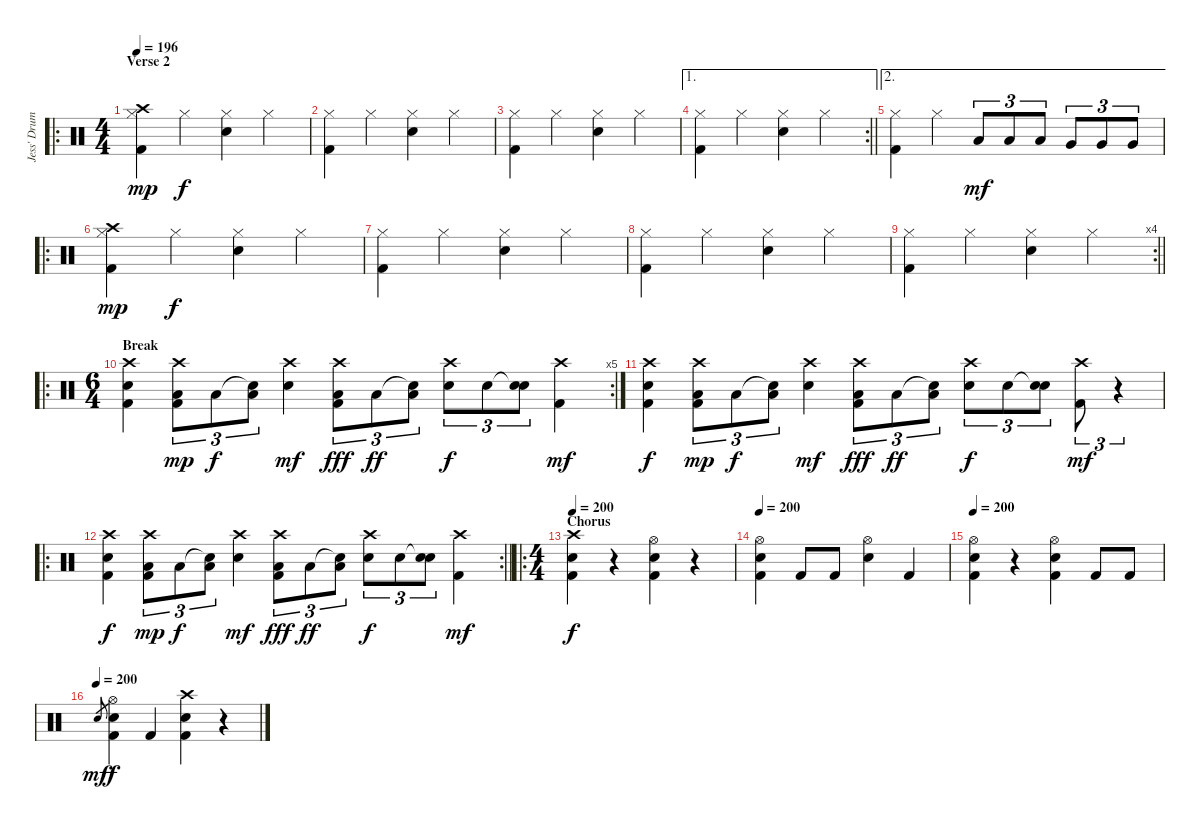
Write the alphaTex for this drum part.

\track ("Jess' Drums" "Jess' Drum") {instrument percussion}
\staff {score}
\articulation defaults
\ro
\ts (4 4)
\section ("" "Verse 2")
\tempo 196
\clef neutral
\ks c
("Crash high (hit)" "Hi-Hat (closed)" "Kick (hit) 2").4{dy mp} "Hi-Hat (closed)".4{dy f} ("Hi-Hat (closed)" "Snare (hit) 2").4 "Hi-Hat (closed)".4 |
("Hi-Hat (closed)" "Kick (hit) 2").4 "Hi-Hat (closed)".4 ("Hi-Hat (closed)" "Snare (hit) 2").4 "Hi-Hat (closed)".4 |
("Hi-Hat (closed)" "Kick (hit) 2").4 "Hi-Hat (closed)".4 ("Hi-Hat (closed)" "Snare (hit) 2").4 "Hi-Hat (closed)".4 |
\ae 1
\rc 2
\barLineRight lightlight
("Hi-Hat (closed)" "Kick (hit) 2").4 "Hi-Hat (closed)".4 ("Hi-Hat (closed)" "Snare (hit) 2").4 "Hi-Hat (closed)".4 |
\ae 2
("Hi-Hat (closed)" "Kick (hit) 2").4 "Hi-Hat (closed)".4 "Low Tom (hit)".8{tu (3 2) dy mf} "Low Tom (hit)".8{tu (3 2)} "Low Tom (hit)".8{tu (3 2)} "Very Low Tom (hit)".8{tu (3 2)} "Very Low Tom (hit)".8{tu (3 2)} "Very Low Tom (hit)".8{tu (3 2)} |
\ro
("Crash high (hit)" "Hi-Hat (closed)" "Kick (hit) 2").4{dy mp} "Hi-Hat (closed)".4{dy f} ("Hi-Hat (closed)" "Snare (hit) 2").4 "Hi-Hat (closed)".4 |
("Hi-Hat (closed)" "Kick (hit) 2").4 "Hi-Hat (closed)".4 ("Hi-Hat (closed)" "Snare (hit) 2").4 "Hi-Hat (closed)".4 |
("Hi-Hat (closed)" "Kick (hit) 2").4 "Hi-Hat (closed)".4 ("Hi-Hat (closed)" "Snare (hit) 2").4 "Hi-Hat (closed)".4 |
\rc 4
\barLineRight lightlight
("Hi-Hat (closed)" "Kick (hit) 2").4 "Hi-Hat (closed)".4 ("Hi-Hat (closed)" "Snare (hit) 2").4 "Hi-Hat (closed)".4 |
\ro
\rc 5
\ts (6 4)
\section ("" "Break")
("Crash high (hit)" "Snare (hit) 2" "Kick (hit) 2").4 ("Crash high (hit)" "Low Floor Tom (hit)" "Kick (hit) 2").8{tu (3 2) dy mp} "Low Floor Tom (hit)".8{tu (3 2) dy f} ("Snare (hit)"{t} "Low Floor Tom (hit)").8{tu (3 2)} ("Crash high (hit)" "Snare (hit) 2").4{dy mf} ("Crash high (hit)" "Low Floor Tom (hit)" "Kick (hit) 2").8{tu (3 2) dy fff} "Low Floor Tom (hit)".8{tu (3 2) dy ff} ("Snare (hit)"{t} "Low Floor Tom (hit)").8{tu (3 2)} ("Crash high (hit)" "Snare (hit) 2").8{tu (3 2) dy f} "Snare (hit) 2".8{tu (3 2)} ("Snare (hit)"{t} "Snare (hit) 2").8{tu (3 2)} ("Crash high (hit)" "Kick (hit) 2").4{dy mf} |
("Crash high (hit)" "Snare (hit) 2" "Kick (hit) 2").4{dy f} ("Crash high (hit)" "Low Floor Tom (hit)" "Kick (hit) 2").8{tu (3 2) dy mp} "Low Floor Tom (hit)".8{tu (3 2) dy f} ("Snare (hit)"{t} "Low Floor Tom (hit)").8{tu (3 2)} ("Crash high (hit)" "Snare (hit) 2").4{dy mf} ("Crash high (hit)" "Low Floor Tom (hit)" "Kick (hit) 2").8{tu (3 2) dy fff} "Low Floor Tom (hit)".8{tu (3 2) dy ff} ("Snare (hit)"{t} "Low Floor Tom (hit)").8{tu (3 2)} ("Crash high (hit)" "Snare (hit) 2").8{tu (3 2) dy f} "Snare (hit) 2".8{tu (3 2)} ("Snare (hit)"{t} "Snare (hit) 2").8{tu (3 2)} ("Crash high (hit)" "Kick (hit) 2").8{tu (3 2) dy mf} r.4{tu (3 2)} |
\ro
\rc 2
\barLineRight lightlight
("Crash high (hit)" "Snare (hit) 2" "Kick (hit) 2").4{dy f} ("Crash high (hit)" "Low Floor Tom (hit)" "Kick (hit) 2").8{tu (3 2) dy mp} "Low Floor Tom (hit)".8{tu (3 2) dy f} ("Snare (hit)"{t} "Low Floor Tom (hit)").8{tu (3 2)} ("Crash high (hit)" "Snare (hit) 2").4{dy mf} ("Crash high (hit)" "Low Floor Tom (hit)" "Kick (hit) 2").8{tu (3 2) dy fff} "Low Floor Tom (hit)".8{tu (3 2) dy ff} ("Snare (hit)"{t} "Low Floor Tom (hit)").8{tu (3 2)} ("Crash high (hit)" "Snare (hit) 2").8{tu (3 2) dy f} "Snare (hit) 2".8{tu (3 2)} ("Snare (hit)"{t} "Snare (hit) 2").8{tu (3 2)} ("Crash high (hit)" "Kick (hit) 2").4{dy mf} |
\ro
\ts (4 4)
\section ("" "Chorus")
\tempo 200
("Crash high (hit)" "Snare (hit) 2" "Kick (hit) 2").4{dy f} r.4 ("Hi-Hat (open)" "Snare (hit) 2" "Kick (hit) 2").4 r.4 |
\tempo 200
("Hi-Hat (open)" "Snare (hit) 2" "Kick (hit) 2").4 "Kick (hit) 2".8 "Kick (hit) 2".8 ("Hi-Hat (open)" "Snare (hit) 2").4 "Kick (hit) 2".4 |
\tempo 200
("Hi-Hat (open)" "Snare (hit) 2" "Kick (hit) 2").4 r.4 ("Hi-Hat (open)" "Snare (hit) 2" "Kick (hit) 2").4 "Kick (hit) 2".8 "Kick (hit) 2".8 |
\tempo (200)
"Snare (hit) 2".8{gr dy mf} ("Hi-Hat (open)" "Snare (hit) 2" "Kick (hit) 2").4{dy f} "Kick (hit) 2".4 ("Crash high (hit)" "Snare (hit) 2" "Kick (hit) 2").4 r.4
